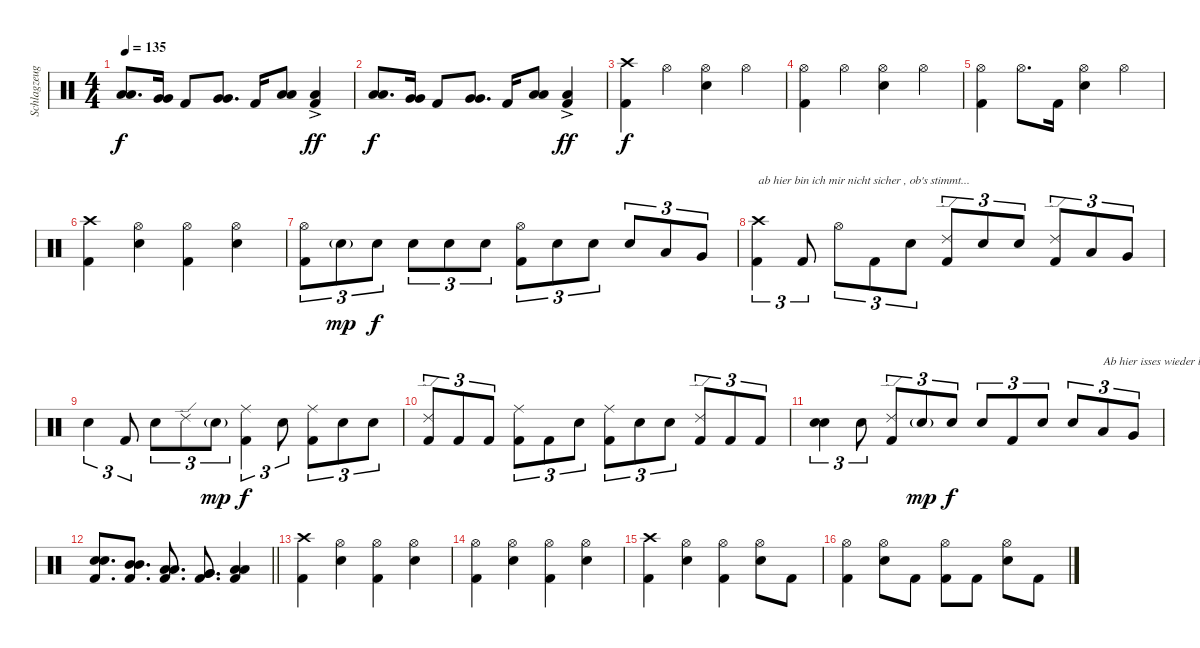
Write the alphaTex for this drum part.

\track ("Schlagzeug" "Schlagzeug") {instrument percussion}
\staff {score}
\articulation defaults
\ts (4 4)
\tempo 135
\clef neutral
\ks c
("Low Tom (hit)" "Low Tom (hit)").8{d dy f} ("Very Low Tom (hit)" "Very Low Tom (hit)").16 "Kick (hit) 2".8 ("Very Low Tom (hit)" "Very Low Tom (hit)").8{d} "Kick (hit) 2".16 ("Low Floor Tom (hit)" "Low Floor Tom (hit)").8 ("Low Floor Tom (hit)"{ac} "Kick (hit) 2"{ac}).4{dy ff} |
("Low Tom (hit)" "Low Tom (hit)").8{d dy f} ("Very Low Tom (hit)" "Very Low Tom (hit)").16 "Kick (hit) 2".8 ("Very Low Tom (hit)" "Very Low Tom (hit)").8{d} "Kick (hit) 2".16 ("Low Floor Tom (hit)" "Low Floor Tom (hit)").8 ("Low Floor Tom (hit)"{ac} "Kick (hit) 2"{ac}).4{dy ff} |
("Crash high (hit)" "Kick (hit) 2").4{dy f} "Hi-Hat (open)".4 ("Hi-Hat (open)" "Electric Snare (hit)").4 "Hi-Hat (open)".4 |
("Hi-Hat (open)" "Kick (hit) 2").4 "Hi-Hat (open)".4 ("Hi-Hat (open)" "Electric Snare (hit)").4 "Hi-Hat (open)".4 |
("Hi-Hat (open)" "Kick (hit) 2").4 "Hi-Hat (open)".8{d} "Kick (hit) 2".16 ("Hi-Hat (open)" "Electric Snare (hit)").4 "Hi-Hat (open)".4 |
("Crash high (hit)" "Kick (hit) 2").4 ("Hi-Hat (open)" "Electric Snare (hit)").4 ("Hi-Hat (open)" "Kick (hit) 2").4 ("Hi-Hat (open)" "Electric Snare (hit)").4 |
("Hi-Hat (open)" "Kick (hit) 2").8{tu (3 2)} "Electric Snare (hit)"{g}.8{tu (3 2) dy mp} "Electric Snare (hit)".8{tu (3 2) dy f} "Electric Snare (hit)".8{tu (3 2)} "Electric Snare (hit)".8{tu (3 2)} "Electric Snare (hit)".8{tu (3 2)} ("Hi-Hat (open)" "Kick (hit) 2").8{tu (3 2)} "Electric Snare (hit)".8{tu (3 2)} "Electric Snare (hit)".8{tu (3 2)} "Electric Snare (hit)".8{tu (3 2)} "Low Tom (hit)".8{tu (3 2)} "Very Low Tom (hit)".8{tu (3 2)} |
("Crash high (hit)" "Kick (hit) 2").4{tu (3 2) txt "ab hier bin ich mir nicht sicher , ob's stimmt..."} "Kick (hit) 2".8{tu (3 2)} "Hi-Hat (open)".8{tu (3 2)} "Kick (hit) 2".8{tu (3 2)} "Electric Snare (hit)".8{tu (3 2)} ("Ride (edge) 2" "Kick (hit) 2").8{tu (3 2)} "Electric Snare (hit)".8{tu (3 2)} "Electric Snare (hit)".8{tu (3 2)} ("Ride (edge) 2" "Kick (hit) 2").8{tu (3 2)} "Low Tom (hit)".8{tu (3 2)} "Very Low Tom (hit)".8{tu (3 2)} |
"Electric Snare (hit)".4{tu (3 2)} "Kick (hit) 2".8{tu (3 2)} "Electric Snare (hit)".8{tu (3 2)} "Ride (edge) 2".8{tu (3 2)} "Electric Snare (hit)"{g}.8{tu (3 2) dy mp} ("Ride (middle)" "Kick (hit) 2").4{tu (3 2) dy f} "Electric Snare (hit)".8{tu (3 2)} ("Ride (middle)" "Kick (hit) 2").8{tu (3 2)} "Electric Snare (hit)".8{tu (3 2)} "Electric Snare (hit)".8{tu (3 2)} |
("Ride (edge) 2" "Kick (hit) 2").8{tu (3 2)} "Kick (hit) 2".8{tu (3 2)} "Kick (hit) 2".8{tu (3 2)} ("Ride (middle)" "Kick (hit) 2").8{tu (3 2)} "Kick (hit) 2".8{tu (3 2)} "Electric Snare (hit)".8{tu (3 2)} ("Ride (middle)" "Kick (hit) 2").8{tu (3 2)} "Electric Snare (hit)".8{tu (3 2)} "Electric Snare (hit)".8{tu (3 2)} ("Ride (edge) 2" "Kick (hit) 2").8{tu (3 2)} "Kick (hit) 2".8{tu (3 2)} "Kick (hit) 2".8{tu (3 2)} |
("Electric Snare (hit)" "Electric Snare (hit)").4{tu (3 2)} "Electric Snare (hit)".8{tu (3 2)} ("Ride (edge) 2" "Kick (hit) 2").8{tu (3 2)} "Electric Snare (hit)"{g}.8{tu (3 2) dy mp} "Electric Snare (hit)".8{tu (3 2) dy f} "Electric Snare (hit)".8{tu (3 2)} "Kick (hit) 2".8{tu (3 2)} "Electric Snare (hit)".8{tu (3 2)} "Electric Snare (hit)".8{tu (3 2)} "Low Tom (hit)".8{tu (3 2) txt "Ab hier isses wieder leichter"} "Very Low Tom (hit)".8{tu (3 2)} |
\barLineRight lightlight
("Kick (hit) 2" "Electric Snare (hit)" "Electric Snare (hit)").8{d} ("Mid Tom (hit)" "Mid Tom (hit)" "Kick (hit) 2").8{d} ("Low Tom (hit)" "Low Tom (hit)" "Kick (hit) 2").8{d} ("Very Low Tom (hit)" "Very Low Tom (hit)" "Kick (hit) 2").8{d} ("Kick (hit) 2" "Low Floor Tom (hit)" "Low Floor Tom (hit)").4 |
("Crash high (hit)" "Kick (hit) 2").4 ("Hi-Hat (open)" "Electric Snare (hit)").4 ("Hi-Hat (open)" "Kick (hit) 2").4 ("Hi-Hat (open)" "Electric Snare (hit)").4 |
("Hi-Hat (open)" "Kick (hit) 2").4 ("Hi-Hat (open)" "Electric Snare (hit)").4 ("Hi-Hat (open)" "Kick (hit) 2").4 ("Hi-Hat (open)" "Electric Snare (hit)").4 |
("Crash high (hit)" "Kick (hit) 2").4 ("Hi-Hat (open)" "Electric Snare (hit)").4 ("Hi-Hat (open)" "Kick (hit) 2").4 ("Hi-Hat (open)" "Electric Snare (hit)").8 "Kick (hit) 2".8 |
("Hi-Hat (open)" "Kick (hit) 2").4 ("Hi-Hat (open)" "Electric Snare (hit)").8 "Kick (hit) 2".8 ("Hi-Hat (open)" "Kick (hit) 2").8 "Kick (hit) 2".8 ("Hi-Hat (open)" "Electric Snare (hit)").8 "Kick (hit) 2".8
